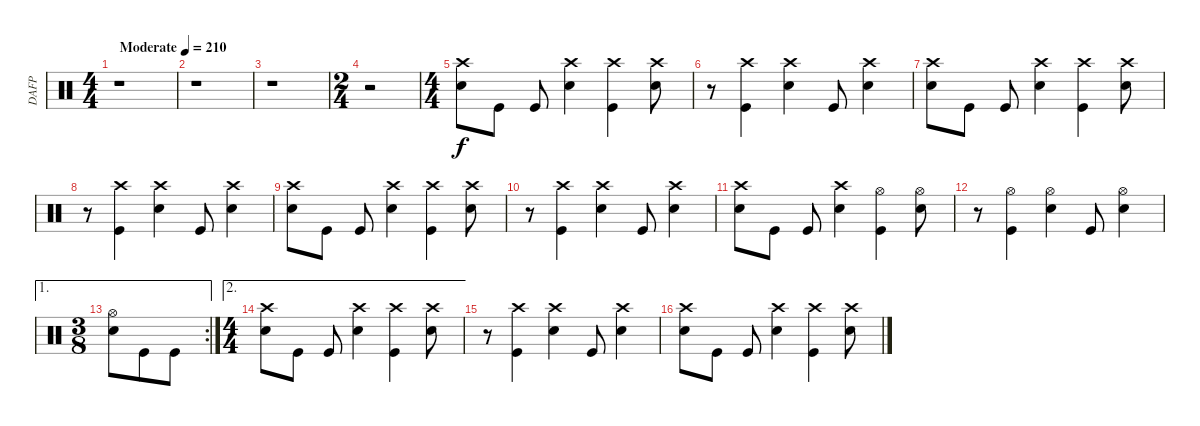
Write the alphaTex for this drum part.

\track ("DAFP" "DAFP") {instrument percussion}
\staff {score}
\articulation defaults
\ts (4 4)
\tempo (210 "Moderate")
\clef neutral
\ks c
r.1{dy f} |
r.1 |
r.1 |
\ts (2 4)
r.2 |
\ts (4 4)
("Crash high (hit)" "Snare (hit) 2").8 "Kick (hit)".8 "Kick (hit)".8 ("Crash high (hit)" "Snare (hit) 2").4 ("Kick (hit)" "Crash high (hit)").4 ("Snare (hit) 2" "Crash high (hit)").8 |
r.8 ("Kick (hit)" "Crash high (hit)").4 ("Crash high (hit)" "Snare (hit) 2").4 "Kick (hit)".8 ("Snare (hit) 2" "Crash high (hit)").4 |
("Crash high (hit)" "Snare (hit) 2").8 "Kick (hit)".8 "Kick (hit)".8 ("Crash high (hit)" "Snare (hit) 2").4 ("Kick (hit)" "Crash high (hit)").4 ("Snare (hit) 2" "Crash high (hit)").8 |
r.8 ("Kick (hit)" "Crash high (hit)").4 ("Crash high (hit)" "Snare (hit) 2").4 "Kick (hit)".8 ("Snare (hit) 2" "Crash high (hit)").4 |
("Crash high (hit)" "Snare (hit) 2").8 "Kick (hit)".8 "Kick (hit)".8 ("Crash high (hit)" "Snare (hit) 2").4 ("Kick (hit)" "Crash high (hit)").4 ("Snare (hit) 2" "Crash high (hit)").8 |
r.8 ("Kick (hit)" "Crash high (hit)").4 ("Crash high (hit)" "Snare (hit) 2").4 "Kick (hit)".8 ("Snare (hit) 2" "Crash high (hit)").4 |
("Crash high (hit)" "Snare (hit) 2").8 "Kick (hit)".8 "Kick (hit)".8 ("Snare (hit) 2" "Crash high (hit)").4 ("Kick (hit)" "Hi-Hat (open)").4 ("Snare (hit) 2" "Hi-Hat (open)").8 |
r.8 ("Kick (hit)" "Hi-Hat (open)").4 ("Snare (hit) 2" "Hi-Hat (open)").4 "Kick (hit)".8 ("Snare (hit) 2" "Hi-Hat (open)").4 |
\ae 1
\rc 2
\ts (3 8)
("Snare (hit) 2" "Hi-Hat (open)").8 "Kick (hit)".8 "Kick (hit)".8 |
\ae 2
\ts (4 4)
("Crash high (hit)" "Snare (hit) 2").8 "Kick (hit)".8 "Kick (hit)".8 ("Crash high (hit)" "Snare (hit) 2").4 ("Kick (hit)" "Crash high (hit)").4 ("Snare (hit) 2" "Crash high (hit)").8 |
r.8 ("Kick (hit)" "Crash high (hit)").4 ("Crash high (hit)" "Snare (hit) 2").4 "Kick (hit)".8 ("Snare (hit) 2" "Crash high (hit)").4 |
("Crash high (hit)" "Snare (hit) 2").8 "Kick (hit)".8 "Kick (hit)".8 ("Crash high (hit)" "Snare (hit) 2").4 ("Kick (hit)" "Crash high (hit)").4 ("Snare (hit) 2" "Crash high (hit)").8
